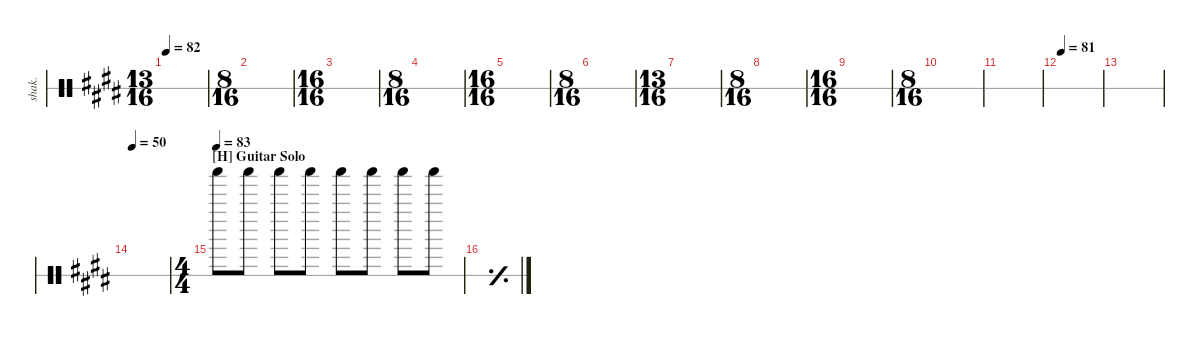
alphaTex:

\defaultSystemsLayout 4
\hideDynamics
\bracketExtendMode groupsimilarinstruments
\otherSystemsTrackNameOrientation horizontal
\chordDiagramsInScore
\track ("Shaker" "shak.") {instrument percussion}
\staff {score 1}
\articulation defaults
\ts (13 16)
\beaming (16 3 3 3 2 2)
\tempo 82
\clef neutral
\ks e
|
\ts (8 16)
\beaming (8 2 2)
|
\ts (16 16)
\beaming (8 2 2 2 2)
|
\ts (8 16)
\beaming (8 2 2)
|
\ts (16 16)
\beaming (8 2 2 2 2)
|
\ts (8 16)
\beaming (8 2 2)
|
\ts (13 16)
\beaming (16 3 3 3 2 2)
|
\ts (8 16)
\beaming (8 2 2)
|
\ts (16 16)
\beaming (8 2 2 2 2)
|
\ts (8 16)
\beaming (8 2 2)
|
|
\tempo 81
|
|
\tempo 50
|
\ts (4 4)
\beaming (8 2 2 2 2)
\section ("H" "Guitar Solo")
\tempo (83)
"Shaker (hit)"{acc forcenatural}.8 "Shaker (hit)"{acc forcenatural}.8 "Shaker (hit)"{acc forcenatural}.8 "Shaker (hit)"{acc forcenatural}.8 "Shaker (hit)"{acc forcenatural}.8 "Shaker (hit)"{acc forcenatural}.8 "Shaker (hit)"{acc forcenatural}.8 "Shaker (hit)"{acc forcenatural}.8 |
\simile simple
